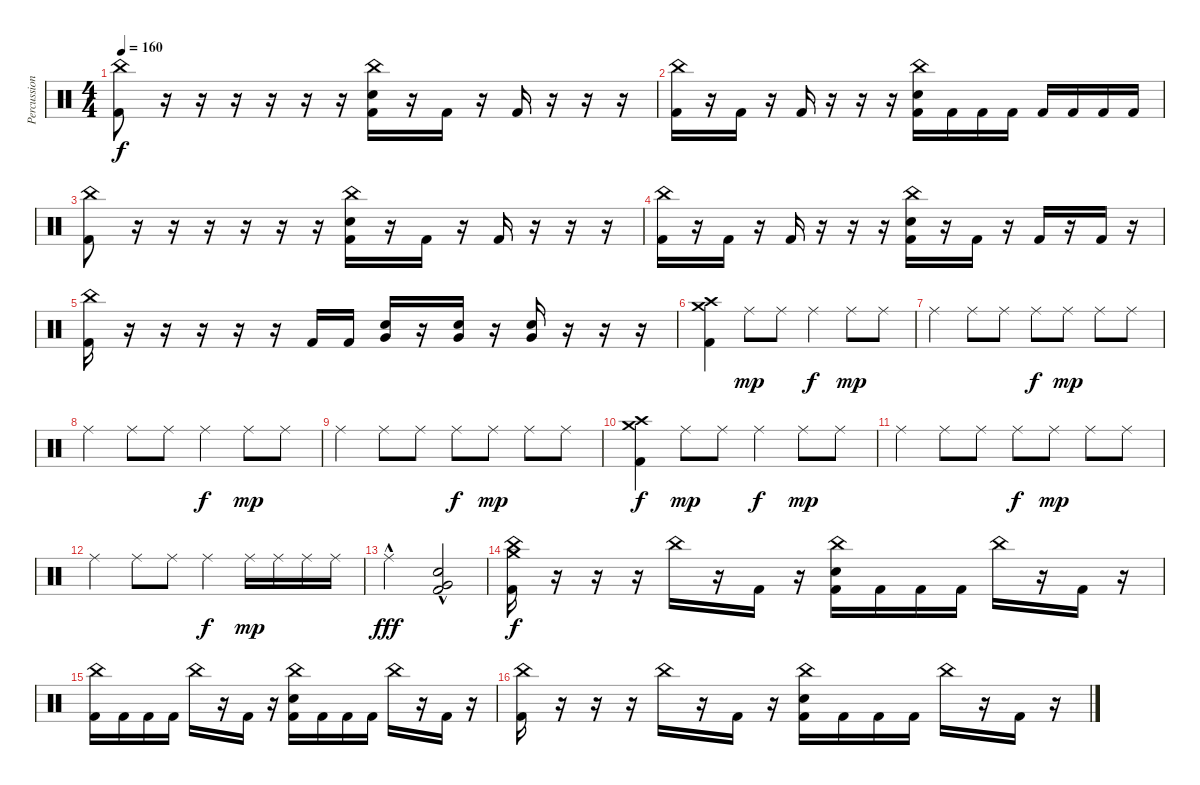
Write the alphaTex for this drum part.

\track ("Percussion" "Percussion") {instrument percussion}
\staff {score}
\articulation defaults
\ts (4 4)
\tempo 160
\clef neutral
\ks c
("China (hit)" "Kick (hit) 2").8{dy f} r.16 r.16 r.16 r.16 r.16 r.16 ("China (hit)" "Electric Snare (hit)" "Kick (hit) 2").16 r.16 "Kick (hit) 2".16 r.16 "Kick (hit) 2".16 r.16 r.16 r.16 |
("China (hit)" "Kick (hit) 2").16 r.16 "Kick (hit) 2".16 r.16 "Kick (hit) 2".16 r.16 r.16 r.16 ("China (hit)" "Electric Snare (hit)" "Kick (hit) 2").16 "Kick (hit) 2".16 "Kick (hit) 2".16 "Kick (hit) 2".16 "Kick (hit) 2".16 "Kick (hit) 2".16 "Kick (hit) 2".16 "Kick (hit) 2".16 |
("China (hit)" "Kick (hit) 2").8 r.16 r.16 r.16 r.16 r.16 r.16 ("China (hit)" "Electric Snare (hit)" "Kick (hit) 2").16 r.16 "Kick (hit) 2".16 r.16 "Kick (hit) 2".16 r.16 r.16 r.16 |
("China (hit)" "Kick (hit) 2").16 r.16 "Kick (hit) 2".16 r.16 "Kick (hit) 2".16 r.16 r.16 r.16 ("China (hit)" "Electric Snare (hit)" "Kick (hit) 2").16 r.16 "Kick (hit) 2".16 r.16 "Kick (hit) 2".16 r.16 "Kick (hit) 2".16 r.16 |
("China (hit)" "Kick (hit) 2").16 r.16 r.16 r.16 r.16 r.16 "Kick (hit) 2".16 "Kick (hit) 2".16 ("Electric Snare (hit)" "Very Low Tom (hit)").16 r.16 ("Electric Snare (hit)" "Very Low Tom (hit)").16 r.16 ("Electric Snare (hit)" "Very Low Tom (hit)").16 r.16 r.16 r.16 |
("Crash medium (hit)" "Crash high (hit)" "Kick (hit) 2").4 "Ride (middle)".8{dy mp} "Ride (middle)".8 "Ride (middle)".4{dy f} "Ride (middle)".8{dy mp} "Ride (middle)".8 |
"Ride (middle)".4 "Ride (middle)".8 "Ride (middle)".8 "Ride (middle)".8{dy f} "Ride (middle)".8{dy mp} "Ride (middle)".8 "Ride (middle)".8 |
"Ride (middle)".4 "Ride (middle)".8 "Ride (middle)".8 "Ride (middle)".4{dy f} "Ride (middle)".8{dy mp} "Ride (middle)".8 |
"Ride (middle)".4 "Ride (middle)".8 "Ride (middle)".8 "Ride (middle)".8{dy f} "Ride (middle)".8{dy mp} "Ride (middle)".8 "Ride (middle)".8 |
("Crash medium (hit)" "Crash high (hit)" "Kick (hit) 2").4{dy f} "Ride (middle)".8{dy mp} "Ride (middle)".8 "Ride (middle)".4{dy f} "Ride (middle)".8{dy mp} "Ride (middle)".8 |
"Ride (middle)".4 "Ride (middle)".8 "Ride (middle)".8 "Ride (middle)".8{dy f} "Ride (middle)".8{dy mp} "Ride (middle)".8 "Ride (middle)".8 |
"Ride (middle)".4 "Ride (middle)".8 "Ride (middle)".8 "Ride (middle)".4{dy f} "Ride (middle)".16{dy mp} "Ride (middle)".16 "Ride (middle)".16 "Ride (middle)".16 |
"Ride (middle)"{hac}.2{dy fff} ("Electric Snare (hit)"{hac} "Very Low Tom (hit)"{hac} "Kick (hit) 2"{hac}).2 |
("Crash medium (hit)" "China (hit)" "Kick (hit) 2").16{dy f} r.16 r.16 r.16 "China (hit)".16 r.16 "Kick (hit) 2".16 r.16 ("China (hit)" "Electric Snare (hit)" "Kick (hit) 2").16 "Kick (hit) 2".16 "Kick (hit) 2".16 "Kick (hit) 2".16 "China (hit)".16 r.16 "Kick (hit) 2".16 r.16 |
("China (hit)" "Kick (hit) 2").16 "Kick (hit) 2".16 "Kick (hit) 2".16 "Kick (hit) 2".16 "China (hit)".16 r.16 "Kick (hit) 2".16 r.16 ("China (hit)" "Electric Snare (hit)" "Kick (hit) 2").16 "Kick (hit) 2".16 "Kick (hit) 2".16 "Kick (hit) 2".16 "China (hit)".16 r.16 "Kick (hit) 2".16 r.16 |
("China (hit)" "Kick (hit) 2").16 r.16 r.16 r.16 "China (hit)".16 r.16 "Kick (hit) 2".16 r.16 ("China (hit)" "Electric Snare (hit)" "Kick (hit) 2").16 "Kick (hit) 2".16 "Kick (hit) 2".16 "Kick (hit) 2".16 "China (hit)".16 r.16 "Kick (hit) 2".16 r.16
